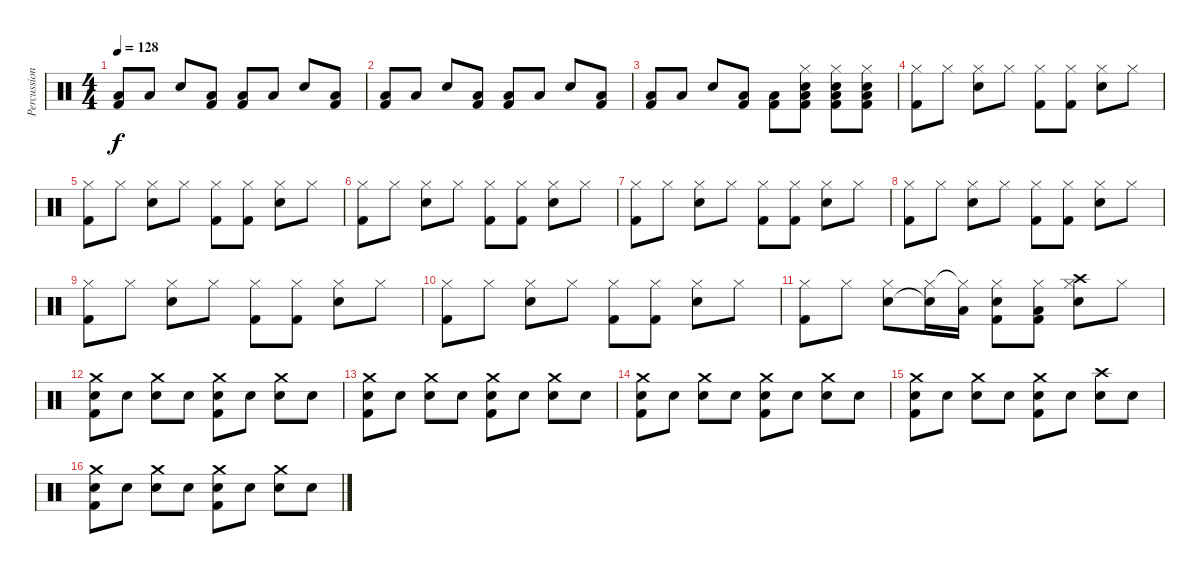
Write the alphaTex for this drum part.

\track ("Percussion" "Percussion") {instrument percussion}
\staff {score}
\articulation defaults
\ts (4 4)
\tempo 128
\clef neutral
\ks c
("Low Floor Tom (hit)" "Kick (hit) 2").8{dy f} "Low Floor Tom (hit)".8 "Snare (hit) 2".8 ("Low Floor Tom (hit)" "Kick (hit) 2").8 ("Low Floor Tom (hit)" "Kick (hit) 2").8 "Low Floor Tom (hit)".8 "Snare (hit) 2".8 ("Low Floor Tom (hit)" "Kick (hit) 2").8 |
("Low Floor Tom (hit)" "Kick (hit) 2").8 "Low Floor Tom (hit)".8 "Snare (hit) 2".8 ("Low Floor Tom (hit)" "Kick (hit) 2").8 ("Low Floor Tom (hit)" "Kick (hit) 2").8 "Low Floor Tom (hit)".8 "Snare (hit) 2".8 ("Low Floor Tom (hit)" "Kick (hit) 2").8 |
("Low Floor Tom (hit)" "Kick (hit) 2").8 "Low Floor Tom (hit)".8 "Snare (hit) 2".8 ("Low Floor Tom (hit)" "Kick (hit) 2").8 ("Low Floor Tom (hit)" "Kick (hit) 2").8 ("Hi-Hat (closed)" "Snare (hit) 2" "Low Floor Tom (hit)" "Kick (hit) 2").8 ("Hi-Hat (closed)" "Snare (hit) 2" "Low Floor Tom (hit)" "Kick (hit) 2").8 ("Hi-Hat (closed)" "Snare (hit) 2" "Low Floor Tom (hit)" "Kick (hit) 2").8 |
("Hi-Hat (closed)" "Kick (hit) 2").8 "Hi-Hat (closed)".8 ("Hi-Hat (closed)" "Snare (hit) 2").8 "Hi-Hat (closed)".8 ("Hi-Hat (closed)" "Kick (hit) 2").8 ("Hi-Hat (closed)" "Kick (hit) 2").8 ("Hi-Hat (closed)" "Snare (hit) 2").8 "Hi-Hat (closed)".8 |
("Hi-Hat (closed)" "Kick (hit) 2").8 "Hi-Hat (closed)".8 ("Hi-Hat (closed)" "Snare (hit) 2").8 "Hi-Hat (closed)".8 ("Hi-Hat (closed)" "Kick (hit) 2").8 ("Hi-Hat (closed)" "Kick (hit) 2").8 ("Hi-Hat (closed)" "Snare (hit) 2").8 "Hi-Hat (closed)".8 |
("Hi-Hat (closed)" "Kick (hit) 2").8 "Hi-Hat (closed)".8 ("Hi-Hat (closed)" "Snare (hit) 2").8 "Hi-Hat (closed)".8 ("Hi-Hat (closed)" "Kick (hit) 2").8 ("Hi-Hat (closed)" "Kick (hit) 2").8 ("Hi-Hat (closed)" "Snare (hit) 2").8 "Hi-Hat (closed)".8 |
("Hi-Hat (closed)" "Kick (hit) 2").8 "Hi-Hat (closed)".8 ("Hi-Hat (closed)" "Snare (hit) 2").8 "Hi-Hat (closed)".8 ("Hi-Hat (closed)" "Kick (hit) 2").8 ("Hi-Hat (closed)" "Kick (hit) 2").8 ("Hi-Hat (closed)" "Snare (hit) 2").8 "Hi-Hat (closed)".8 |
("Hi-Hat (closed)" "Kick (hit) 2").8 "Hi-Hat (closed)".8 ("Hi-Hat (closed)" "Snare (hit) 2").8 "Hi-Hat (closed)".8 ("Hi-Hat (closed)" "Kick (hit) 2").8 ("Hi-Hat (closed)" "Kick (hit) 2").8 ("Hi-Hat (closed)" "Snare (hit) 2").8 "Hi-Hat (closed)".8 |
("Hi-Hat (closed)" "Kick (hit) 2").8 "Hi-Hat (closed)".8 ("Hi-Hat (closed)" "Snare (hit) 2").8 "Hi-Hat (closed)".8 ("Hi-Hat (closed)" "Kick (hit) 2").8 ("Hi-Hat (closed)" "Kick (hit) 2").8 ("Hi-Hat (closed)" "Snare (hit) 2").8 "Hi-Hat (closed)".8 |
("Hi-Hat (closed)" "Kick (hit) 2").8 "Hi-Hat (closed)".8 ("Hi-Hat (closed)" "Snare (hit) 2").8 "Hi-Hat (closed)".8 ("Hi-Hat (closed)" "Kick (hit) 2").8 ("Hi-Hat (closed)" "Kick (hit) 2").8 ("Hi-Hat (closed)" "Snare (hit) 2").8 "Hi-Hat (closed)".8 |
("Hi-Hat (closed)" "Kick (hit) 2").8 "Hi-Hat (closed)".8 ("Hi-Hat (closed)" "Snare (hit) 2").8 ("Hi-Hat (closed)" "Snare (hit)"{t}).16 ("Hi-Hat (closed)"{t} "Low Floor Tom (hit)").16 ("Hi-Hat (closed)" "Snare (hit) 2" "Kick (hit) 2").8 ("Hi-Hat (closed)" "Low Floor Tom (hit)" "Kick (hit) 2").8 ("Crash high (hit)" "Hi-Hat (closed)" "Snare (hit) 2").8 "Hi-Hat (closed)".8 |
("Crash medium (hit)" "Snare (hit) 2" "Kick (hit) 2").8 "Snare (hit) 2".8 ("Crash medium (hit)" "Snare (hit) 2").8 "Snare (hit) 2".8 ("Crash medium (hit)" "Snare (hit) 2" "Kick (hit) 2").8 "Snare (hit) 2".8 ("Crash medium (hit)" "Snare (hit) 2").8 "Snare (hit) 2".8 |
("Crash medium (hit)" "Snare (hit) 2" "Kick (hit) 2").8 "Snare (hit) 2".8 ("Crash medium (hit)" "Snare (hit) 2").8 "Snare (hit) 2".8 ("Crash medium (hit)" "Snare (hit) 2" "Kick (hit) 2").8 "Snare (hit) 2".8 ("Crash medium (hit)" "Snare (hit) 2").8 "Snare (hit) 2".8 |
("Crash medium (hit)" "Snare (hit) 2" "Kick (hit) 2").8 "Snare (hit) 2".8 ("Crash medium (hit)" "Snare (hit) 2").8 "Snare (hit) 2".8 ("Crash medium (hit)" "Snare (hit) 2" "Kick (hit) 2").8 "Snare (hit) 2".8 ("Crash medium (hit)" "Snare (hit) 2").8 "Snare (hit) 2".8 |
("Crash medium (hit)" "Snare (hit) 2" "Kick (hit) 2").8 "Snare (hit) 2".8 ("Crash medium (hit)" "Snare (hit) 2").8 "Snare (hit) 2".8 ("Crash medium (hit)" "Snare (hit) 2" "Kick (hit) 2").8 "Snare (hit) 2".8 ("Crash high (hit)" "Snare (hit) 2").8 "Snare (hit) 2".8 |
("Crash medium (hit)" "Snare (hit) 2" "Kick (hit) 2").8 "Snare (hit) 2".8 ("Crash medium (hit)" "Snare (hit) 2").8 "Snare (hit) 2".8 ("Crash medium (hit)" "Snare (hit) 2" "Kick (hit) 2").8 "Snare (hit) 2".8 ("Crash medium (hit)" "Snare (hit) 2").8 "Snare (hit) 2".8
